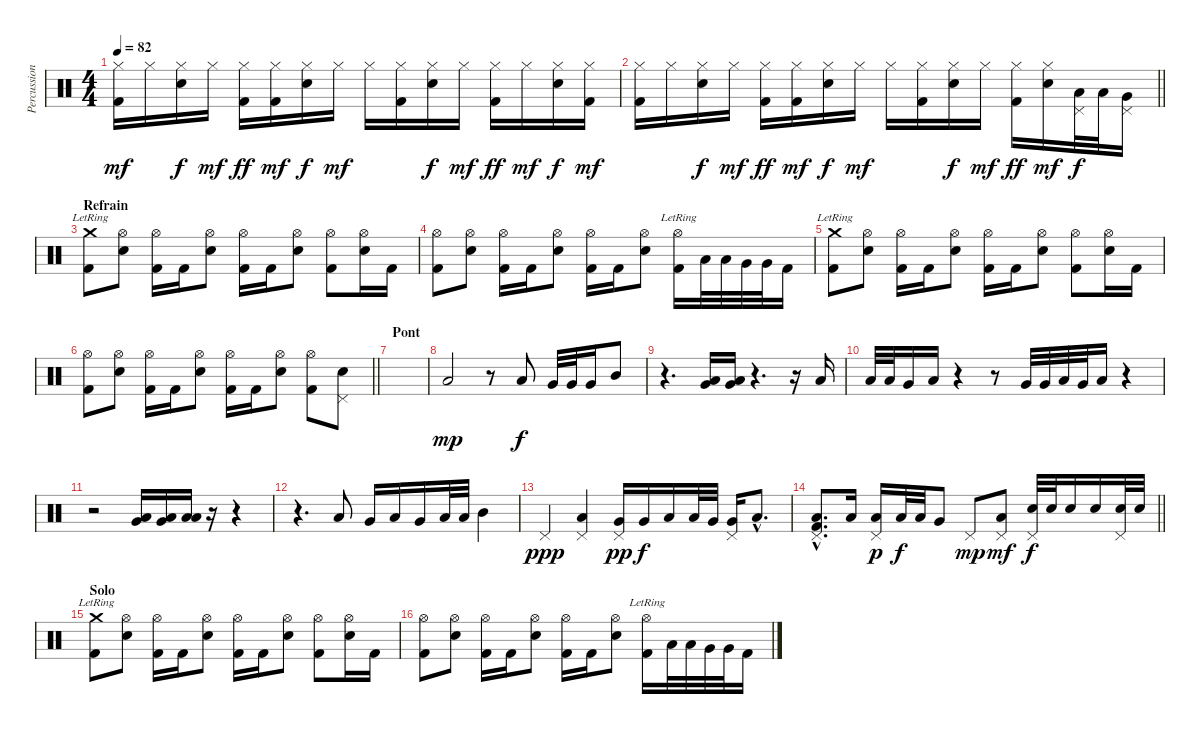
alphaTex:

\track ("Percussions" "Percussion") {instrument percussion}
\staff {score}
\articulation defaults
\ts (4 4)
\tempo 82
\clef neutral
\ks c
("Hi-Hat (closed)" "Kick (hit) 2").16{dy mf} "Hi-Hat (closed)".16 ("Hi-Hat (closed)" "Snare (hit) 2").16{dy f} "Hi-Hat (closed)".16{dy mf} ("Hi-Hat (closed)" "Kick (hit) 2").16{dy ff} ("Hi-Hat (closed)" "Kick (hit) 2").16{dy mf} ("Hi-Hat (closed)" "Snare (hit) 2").16{dy f} "Hi-Hat (closed)".16{dy mf} "Hi-Hat (closed)".16 ("Hi-Hat (closed)" "Kick (hit) 2").16 ("Hi-Hat (closed)" "Snare (hit) 2").16{dy f} "Hi-Hat (closed)".16{dy mf} ("Hi-Hat (closed)" "Kick (hit) 2").16{dy ff} "Hi-Hat (closed)".16{dy mf} ("Hi-Hat (closed)" "Snare (hit) 2").16{dy f} ("Hi-Hat (closed)" "Kick (hit) 2").16{dy mf} |
\barLineRight lightlight
("Hi-Hat (closed)" "Kick (hit) 2").16 "Hi-Hat (closed)".16 ("Hi-Hat (closed)" "Snare (hit) 2").16{dy f} "Hi-Hat (closed)".16{dy mf} ("Hi-Hat (closed)" "Kick (hit) 2").16{dy ff} ("Hi-Hat (closed)" "Kick (hit) 2").16{dy mf} ("Hi-Hat (closed)" "Snare (hit) 2").16{dy f} "Hi-Hat (closed)".16{dy mf} "Hi-Hat (closed)".16 ("Hi-Hat (closed)" "Kick (hit) 2").16 ("Hi-Hat (closed)" "Snare (hit) 2").16{dy f} "Hi-Hat (closed)".16{dy mf} ("Hi-Hat (closed)" "Kick (hit) 2").16{dy ff} ("Hi-Hat (closed)" "Snare (hit) 2").16{dy mf} ("Pedal Hi-Hat (hit)" "Low Tom (hit)").32{dy f} "Low Tom (hit)".32 ("Pedal Hi-Hat (hit)" "Very Low Tom (hit)").16 |
\section ("" "Refrain")
("Crash medium (hit)"{lr} "Kick (hit) 2").8 ("Hi-Hat (open)" "Snare (hit) 2").8 ("Hi-Hat (open)" "Kick (hit) 2").16 "Kick (hit) 2".16 ("Hi-Hat (open)" "Snare (hit) 2").8 ("Hi-Hat (open)" "Kick (hit) 2").16 "Kick (hit) 2".16 ("Hi-Hat (open)" "Snare (hit) 2").8 ("Hi-Hat (open)" "Kick (hit) 2").8 ("Hi-Hat (open)" "Snare (hit) 2").16 "Kick (hit) 2".16 |
("Hi-Hat (open)" "Kick (hit) 2").8 ("Hi-Hat (open)" "Snare (hit) 2").8 ("Hi-Hat (open)" "Kick (hit) 2").16 "Kick (hit) 2".16 ("Hi-Hat (open)" "Snare (hit) 2").8 ("Hi-Hat (open)" "Kick (hit) 2").16 "Kick (hit) 2".16 ("Hi-Hat (open)" "Snare (hit) 2").8 ("Hi-Hat (open)"{lr} "Kick (hit) 2").16 "Low Tom (hit)".32 "Low Tom (hit)".32 "Very Low Tom (hit)".32 "Very Low Tom (hit)".32 "Kick (hit) 2".16 |
("Crash medium (hit)"{lr} "Kick (hit) 2").8 ("Hi-Hat (open)" "Snare (hit) 2").8 ("Hi-Hat (open)" "Kick (hit) 2").16 "Kick (hit) 2".16 ("Hi-Hat (open)" "Snare (hit) 2").8 ("Hi-Hat (open)" "Kick (hit) 2").16 "Kick (hit) 2".16 ("Hi-Hat (open)" "Snare (hit) 2").8 ("Hi-Hat (open)" "Kick (hit) 2").8 ("Hi-Hat (open)" "Snare (hit) 2").16 "Kick (hit) 2".16 |
\barLineRight lightlight
("Hi-Hat (open)" "Kick (hit) 2").8 ("Hi-Hat (open)" "Snare (hit) 2").8 ("Hi-Hat (open)" "Kick (hit) 2").16 "Kick (hit) 2".16 ("Hi-Hat (open)" "Snare (hit) 2").8 ("Hi-Hat (open)" "Kick (hit) 2").16 "Kick (hit) 2".16 ("Hi-Hat (open)" "Snare (hit) 2").8 ("Hi-Hat (open)" "Kick (hit) 2").8 ("Pedal Hi-Hat (hit)" "Snare (hit) 2").8 |
\section ("" "Pont")
|
"Low Floor Tom (hit)".2{dy mp} r.8 "Low Tom (hit)".8{dy f} "Very Low Tom (hit)".32 "Very Low Tom (hit)".32 "Very Low Tom (hit)".16 "Mid Tom (hit)".8 |
r.4{d} ("Very Low Tom (hit)" "Low Floor Tom (hit)").16 ("Very Low Tom (hit)" "Low Floor Tom (hit)").16 r.4{d} r.16 "Low Floor Tom (hit)".16 |
"Low Floor Tom (hit)".32 "Low Floor Tom (hit)".32 "Very Low Tom (hit)".16 "Low Tom (hit)".16 r.4 r.8 "Very Low Tom (hit)".32 "Very Low Tom (hit)".32 "Low Tom (hit)".32 "Very Low Tom (hit)".32 "Low Tom (hit)".16 r.4 |
r.2 ("Low Floor Tom (hit)" "Very Low Tom (hit)").16 ("Low Floor Tom (hit)" "Very Low Tom (hit)").16 ("Low Floor Tom (hit)" "Low Tom (hit)").16 r.16 r.4 |
r.4{d} "Low Tom (hit)".8 "Very Low Tom (hit)".16 "Low Floor Tom (hit)".16 "Very Low Tom (hit)".16 "Low Tom (hit)".32 "Low Tom (hit)".32 "Mid Tom (hit)".4 |
"Pedal Hi-Hat (hit)".4{dy ppp} ("Pedal Hi-Hat (hit)" "Low Floor Tom (hit)").4 ("Pedal Hi-Hat (hit)" "Very Low Tom (hit)").16{dy pp} "Very Low Tom (hit)".16{dy f} "Low Floor Tom (hit)".16 "Low Floor Tom (hit)".32 "Very Low Tom (hit)".32 ("Pedal Hi-Hat (hit)" "Very Low Tom (hit)").16 "Low Floor Tom (hit)"{hac}.8{d} |
\barLineRight lightlight
("Pedal Hi-Hat (hit)"{hac} "Low Tom (hit)"{hac} "Kick (hit) 2"{hac}).8{d} "Low Floor Tom (hit)".16 ("Pedal Hi-Hat (hit)" "Low Floor Tom (hit)").16{dy p} "Low Floor Tom (hit)".32{dy f} "Low Floor Tom (hit)".32 "Very Low Tom (hit)".8 "Pedal Hi-Hat (hit)".8{dy mp} ("Pedal Hi-Hat (hit)" "Low Tom (hit)").8{dy mf} ("Pedal Hi-Hat (hit)" "Snare (hit) 2").32{dy f} "Snare (hit) 2".32 "Snare (hit) 2".16 "Snare (hit) 2".16 ("Pedal Hi-Hat (hit)" "Snare (hit) 2").32 "Snare (hit) 2".32 |
\section ("" "Solo")
("Crash medium (hit)"{lr} "Kick (hit) 2").8 ("Hi-Hat (open)" "Snare (hit) 2").8 ("Hi-Hat (open)" "Kick (hit) 2").16 "Kick (hit) 2".16 ("Hi-Hat (open)" "Snare (hit) 2").8 ("Hi-Hat (open)" "Kick (hit) 2").16 "Kick (hit) 2".16 ("Hi-Hat (open)" "Snare (hit) 2").8 ("Hi-Hat (open)" "Kick (hit) 2").8 ("Hi-Hat (open)" "Snare (hit) 2").16 "Kick (hit) 2".16 |
("Hi-Hat (open)" "Kick (hit) 2").8 ("Hi-Hat (open)" "Snare (hit) 2").8 ("Hi-Hat (open)" "Kick (hit) 2").16 "Kick (hit) 2".16 ("Hi-Hat (open)" "Snare (hit) 2").8 ("Hi-Hat (open)" "Kick (hit) 2").16 "Kick (hit) 2".16 ("Hi-Hat (open)" "Snare (hit) 2").8 ("Hi-Hat (open)"{lr} "Kick (hit) 2").16 "Low Tom (hit)".32 "Low Tom (hit)".32 "Very Low Tom (hit)".32 "Very Low Tom (hit)".32 "Kick (hit) 2".16
